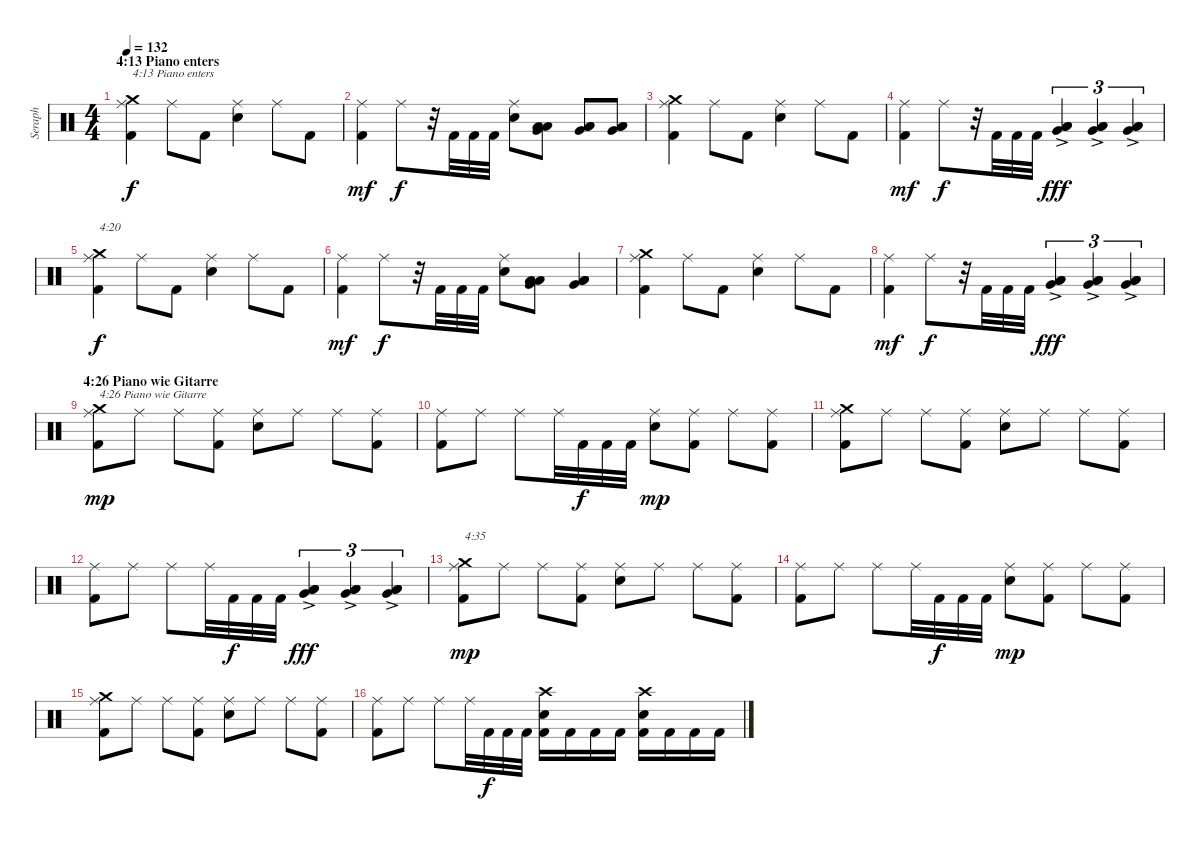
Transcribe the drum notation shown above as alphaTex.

\track ("Seraph" "Seraph") {instrument percussion}
\staff {score}
\articulation defaults
\ts (4 4)
\section ("" "4:13 Piano enters")
\tempo 132
\clef neutral
\ks c
("Kick (hit) 2" "Ride (middle)" "Crash medium (hit)").4{txt "4:13 Piano enters" dy f} "Ride (middle)".8 "Kick (hit) 2".8 ("Electric Snare (hit)" "Ride (middle)").4 "Ride (middle)".8 "Kick (hit) 2".8 |
("Kick (hit) 2" "Ride (middle)").4{dy mf} "Ride (middle)".8{dy f} r.32 "Kick (hit) 2".32 "Kick (hit) 2".32 "Kick (hit) 2".32 ("Electric Snare (hit)" "Ride (middle)").8 ("Low Floor Tom (hit)" "Very Low Tom (hit)" "Low Tom (hit)").8 ("Low Floor Tom (hit)" "Very Low Tom (hit)" "Low Tom (hit)").8 ("Low Floor Tom (hit)" "Very Low Tom (hit)" "Low Tom (hit)").8 |
("Kick (hit) 2" "Ride (middle)" "Crash medium (hit)").4 "Ride (middle)".8 "Kick (hit) 2".8 ("Electric Snare (hit)" "Ride (middle)").4 "Ride (middle)".8 "Kick (hit) 2".8 |
("Kick (hit) 2" "Ride (middle)").4{dy mf} "Ride (middle)".8{dy f} r.32 "Kick (hit) 2".32 "Kick (hit) 2".32 "Kick (hit) 2".32 ("Low Floor Tom (hit)"{ac} "Very Low Tom (hit)"{ac} "Low Tom (hit)"{ac}).4{tu (3 2) dy fff} ("Low Floor Tom (hit)"{ac} "Very Low Tom (hit)"{ac} "Low Tom (hit)"{ac}).4{tu (3 2)} ("Low Floor Tom (hit)"{ac} "Very Low Tom (hit)"{ac} "Low Tom (hit)"{ac}).4{tu (3 2)} |
("Kick (hit) 2" "Ride (middle)" "Crash medium (hit)").4{txt "4:20" dy f} "Ride (middle)".8 "Kick (hit) 2".8 ("Electric Snare (hit)" "Ride (middle)").4 "Ride (middle)".8 "Kick (hit) 2".8 |
("Kick (hit) 2" "Ride (middle)").4{dy mf} "Ride (middle)".8{dy f} r.32 "Kick (hit) 2".32 "Kick (hit) 2".32 "Kick (hit) 2".32 ("Electric Snare (hit)" "Ride (middle)").8 ("Low Floor Tom (hit)" "Very Low Tom (hit)" "Low Tom (hit)").8 ("Low Floor Tom (hit)" "Very Low Tom (hit)" "Low Tom (hit)").4 |
("Kick (hit) 2" "Ride (middle)" "Crash medium (hit)").4 "Ride (middle)".8 "Kick (hit) 2".8 ("Electric Snare (hit)" "Ride (middle)").4 "Ride (middle)".8 "Kick (hit) 2".8 |
("Kick (hit) 2" "Ride (middle)").4{dy mf} "Ride (middle)".8{dy f} r.32 "Kick (hit) 2".32 "Kick (hit) 2".32 "Kick (hit) 2".32 ("Low Floor Tom (hit)"{ac} "Very Low Tom (hit)"{ac} "Low Tom (hit)"{ac}).4{tu (3 2) dy fff} ("Low Floor Tom (hit)"{ac} "Very Low Tom (hit)"{ac} "Low Tom (hit)"{ac}).4{tu (3 2)} ("Low Floor Tom (hit)"{ac} "Very Low Tom (hit)"{ac} "Low Tom (hit)"{ac}).4{tu (3 2)} |
\section ("" "4:26 Piano wie Gitarre")
("Kick (hit) 2" "Ride (middle)" "Crash medium (hit)").8{txt "4:26 Piano wie Gitarre" dy mp} "Ride (middle)".8 "Ride (middle)".8 ("Kick (hit) 2" "Ride (middle)").8 ("Electric Snare (hit)" "Ride (middle)").8 "Ride (middle)".8 "Ride (middle)".8 ("Kick (hit) 2" "Ride (middle)").8 |
("Kick (hit) 2" "Ride (middle)").8 "Ride (middle)".8 "Ride (middle)".8 "Ride (middle)".32 "Kick (hit) 2".32{dy f} "Kick (hit) 2".32 "Kick (hit) 2".32 ("Electric Snare (hit)" "Ride (middle)").8{dy mp} ("Kick (hit) 2" "Ride (middle)").8 "Ride (middle)".8 ("Kick (hit) 2" "Ride (middle)").8 |
("Kick (hit) 2" "Ride (middle)" "Crash medium (hit)").8 "Ride (middle)".8 "Ride (middle)".8 ("Kick (hit) 2" "Ride (middle)").8 ("Electric Snare (hit)" "Ride (middle)").8 "Ride (middle)".8 "Ride (middle)".8 ("Kick (hit) 2" "Ride (middle)").8 |
("Kick (hit) 2" "Ride (middle)").8 "Ride (middle)".8 "Ride (middle)".8 "Ride (middle)".32 "Kick (hit) 2".32{dy f} "Kick (hit) 2".32 "Kick (hit) 2".32 ("Low Floor Tom (hit)"{ac} "Very Low Tom (hit)"{ac} "Low Tom (hit)"{ac}).4{tu (3 2) dy fff} ("Low Floor Tom (hit)"{ac} "Very Low Tom (hit)"{ac} "Low Tom (hit)"{ac}).4{tu (3 2)} ("Low Floor Tom (hit)"{ac} "Very Low Tom (hit)"{ac} "Low Tom (hit)"{ac}).4{tu (3 2)} |
("Kick (hit) 2" "Ride (middle)" "Crash medium (hit)").8{txt "4:35" dy mp} "Ride (middle)".8 "Ride (middle)".8 ("Kick (hit) 2" "Ride (middle)").8 ("Electric Snare (hit)" "Ride (middle)").8 "Ride (middle)".8 "Ride (middle)".8 ("Kick (hit) 2" "Ride (middle)").8 |
("Kick (hit) 2" "Ride (middle)").8 "Ride (middle)".8 "Ride (middle)".8 "Ride (middle)".32 "Kick (hit) 2".32{dy f} "Kick (hit) 2".32 "Kick (hit) 2".32 ("Electric Snare (hit)" "Ride (middle)").8{dy mp} ("Kick (hit) 2" "Ride (middle)").8 "Ride (middle)".8 ("Kick (hit) 2" "Ride (middle)").8 |
("Kick (hit) 2" "Ride (middle)" "Crash medium (hit)").8 "Ride (middle)".8 "Ride (middle)".8 ("Kick (hit) 2" "Ride (middle)").8 ("Electric Snare (hit)" "Ride (middle)").8 "Ride (middle)".8 "Ride (middle)".8 ("Kick (hit) 2" "Ride (middle)").8 |
("Kick (hit) 2" "Ride (middle)").8 "Ride (middle)".8 "Ride (middle)".8 "Ride (middle)".32 "Kick (hit) 2".32{dy f} "Kick (hit) 2".32 "Kick (hit) 2".32 ("Kick (hit) 2" "Electric Snare (hit)" "Crash high (hit)").16 "Kick (hit) 2".16 "Kick (hit) 2".16 "Kick (hit) 2".16 ("Kick (hit) 2" "Electric Snare (hit)" "Crash high (hit)").16 "Kick (hit) 2".16 "Kick (hit) 2".16 "Kick (hit) 2".16
